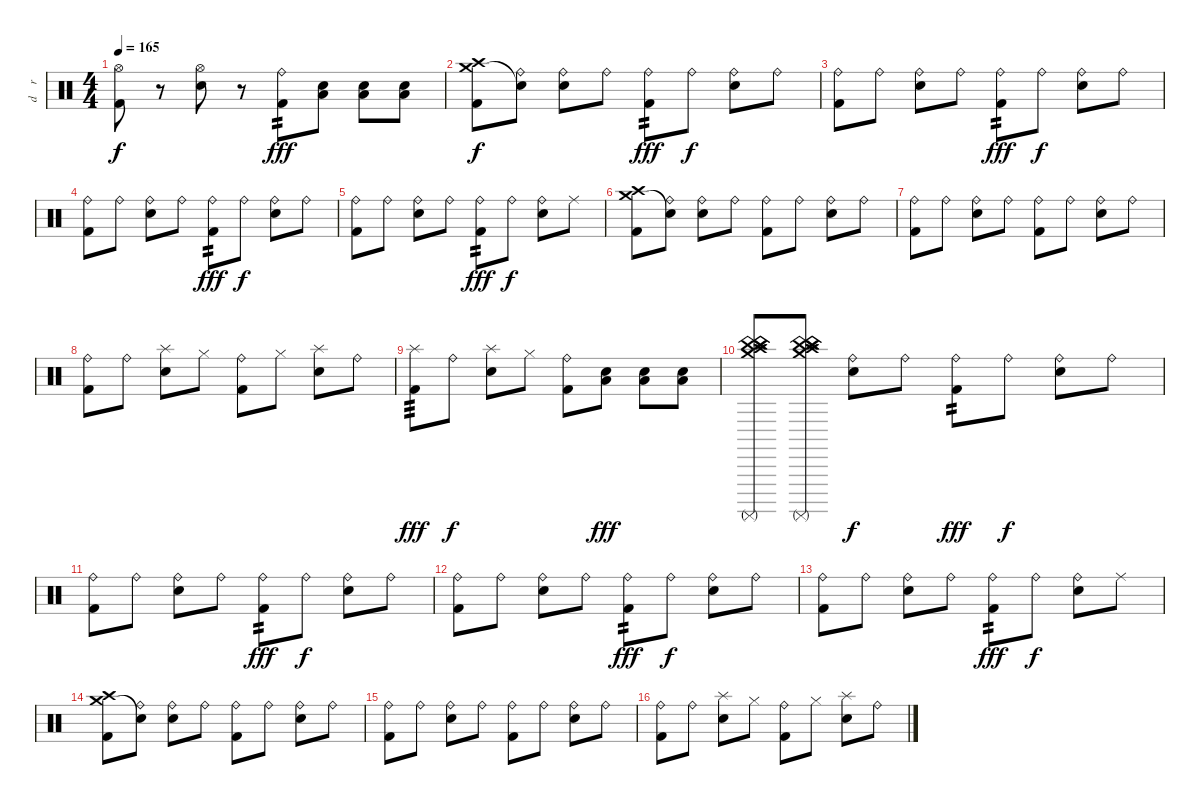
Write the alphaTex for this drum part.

\track ("d    r    u    m    s" "d    r    ") {instrument percussion}
\staff {score}
\articulation defaults
\ts (4 4)
\tempo 165
\clef neutral
\ks c
("Hi-Hat (open)" "Kick (hit) 2").8{dy f} r.8 ("Hi-Hat (open)" "Electric Snare (hit)").8 r.8 ("Ride (bell)" "Kick (hit) 2").8{tp 2 dy fff} ("Low Floor Tom (hit)" "Electric Snare (hit)").8 ("Low Floor Tom (hit)" "Electric Snare (hit)").8 ("Low Floor Tom (hit)" "Electric Snare (hit)").8 |
("Crash high (hit)" "Crash medium (hit)" "Kick (hit) 2").8{dy f} ("Ride (bell)" "Snare (hit)"{t}).8 ("Ride (bell)" "Electric Snare (hit)").8 "Ride (bell)".8 ("Ride (bell)" "Kick (hit) 2").8{tp 2 dy fff} "Ride (bell)".8{dy f} ("Ride (bell)" "Electric Snare (hit)").8 "Ride (bell)".8 |
("Ride (bell)" "Kick (hit) 2").8 "Ride (bell)".8 ("Ride (bell)" "Electric Snare (hit)").8 "Ride (bell)".8 ("Ride (bell)" "Kick (hit) 2").8{tp 2 dy fff} "Ride (bell)".8{dy f} ("Ride (bell)" "Electric Snare (hit)").8 "Ride (bell)".8 |
("Ride (bell)" "Kick (hit) 2").8 "Ride (bell)".8 ("Ride (bell)" "Electric Snare (hit)").8 "Ride (bell)".8 ("Ride (bell)" "Kick (hit) 2").8{tp 2 dy fff} "Ride (bell)".8{dy f} ("Ride (bell)" "Electric Snare (hit)").8 "Ride (bell)".8 |
("Ride (bell)" "Kick (hit) 2").8 "Ride (bell)".8 ("Ride (bell)" "Electric Snare (hit)").8 "Ride (bell)".8 ("Ride (bell)" "Kick (hit) 2").8{tp 2 dy fff} "Ride (bell)".8{dy f} ("Ride (bell)" "Electric Snare (hit)").8 "Ride (middle)".8 |
("Crash high (hit)" "Crash medium (hit)" "Kick (hit) 2").8 ("Ride (bell)" "Snare (hit)"{t}).8 ("Ride (bell)" "Electric Snare (hit)").8 "Ride (bell)".8 ("Ride (bell)" "Kick (hit) 2").8 "Ride (bell)".8 ("Ride (bell)" "Electric Snare (hit)").8 "Ride (bell)".8 |
("Ride (bell)" "Kick (hit) 2").8 "Ride (bell)".8 ("Ride (bell)" "Electric Snare (hit)").8 "Ride (bell)".8 ("Ride (bell)" "Kick (hit) 2").8 "Ride (bell)".8 ("Ride (bell)" "Electric Snare (hit)").8 "Ride (bell)".8 |
("Ride (bell)" "Kick (hit) 2").8 "Ride (bell)".8 ("Splash (hit)" "Electric Snare (hit)").8 "Hi-Hat (closed)".8 ("Ride (bell)" "Kick (hit) 2").8 "Hi-Hat (closed)".8 ("Splash (hit)" "Electric Snare (hit)").8 "Ride (bell)".8 |
("Splash (hit)" "Kick (hit) 2").8{tp 3 dy fff} "Ride (bell)".8{dy f} ("Splash (hit)" "Electric Snare (hit)").8 "Hi-Hat (closed)".8 ("Ride (bell)" "Kick (hit) 2").8 ("Low Floor Tom (hit)" "Electric Snare (hit)").8{dy fff} ("Low Floor Tom (hit)" "Electric Snare (hit)").8 ("Low Floor Tom (hit)" "Electric Snare (hit)").8 |
("Crash high (hit)" "Crash medium (hit)" "China (hit)" "China (hit)" "China (hit)" "Surdo (mute)").8 ("Crash high (hit)" "Crash medium (hit)" "China (hit)" "China (hit)" "China (hit)" "Surdo (mute)").8 ("Ride (bell)" "Electric Snare (hit)").8{dy f} "Ride (bell)".8 ("Ride (bell)" "Kick (hit) 2").8{tp 2 dy fff} "Ride (bell)".8{dy f} ("Ride (bell)" "Electric Snare (hit)").8 "Ride (bell)".8 |
("Ride (bell)" "Kick (hit) 2").8 "Ride (bell)".8 ("Ride (bell)" "Electric Snare (hit)").8 "Ride (bell)".8 ("Ride (bell)" "Kick (hit) 2").8{tp 2 dy fff} "Ride (bell)".8{dy f} ("Ride (bell)" "Electric Snare (hit)").8 "Ride (bell)".8 |
("Ride (bell)" "Kick (hit) 2").8 "Ride (bell)".8 ("Ride (bell)" "Electric Snare (hit)").8 "Ride (bell)".8 ("Ride (bell)" "Kick (hit) 2").8{tp 2 dy fff} "Ride (bell)".8{dy f} ("Ride (bell)" "Electric Snare (hit)").8 "Ride (bell)".8 |
("Ride (bell)" "Kick (hit) 2").8 "Ride (bell)".8 ("Ride (bell)" "Electric Snare (hit)").8 "Ride (bell)".8 ("Ride (bell)" "Kick (hit) 2").8{tp 2 dy fff} "Ride (bell)".8{dy f} ("Ride (bell)" "Electric Snare (hit)").8 "Ride (middle)".8 |
("Crash high (hit)" "Crash medium (hit)" "Kick (hit) 2").8 ("Ride (bell)" "Snare (hit)"{t}).8 ("Ride (bell)" "Electric Snare (hit)").8 "Ride (bell)".8 ("Ride (bell)" "Kick (hit) 2").8 "Ride (bell)".8 ("Ride (bell)" "Electric Snare (hit)").8 "Ride (bell)".8 |
("Ride (bell)" "Kick (hit) 2").8 "Ride (bell)".8 ("Ride (bell)" "Electric Snare (hit)").8 "Ride (bell)".8 ("Ride (bell)" "Kick (hit) 2").8 "Ride (bell)".8 ("Ride (bell)" "Electric Snare (hit)").8 "Ride (bell)".8 |
("Ride (bell)" "Kick (hit) 2").8 "Ride (bell)".8 ("Splash (hit)" "Electric Snare (hit)").8 "Hi-Hat (closed)".8 ("Ride (bell)" "Kick (hit) 2").8 "Hi-Hat (closed)".8 ("Splash (hit)" "Electric Snare (hit)").8 "Ride (bell)".8
